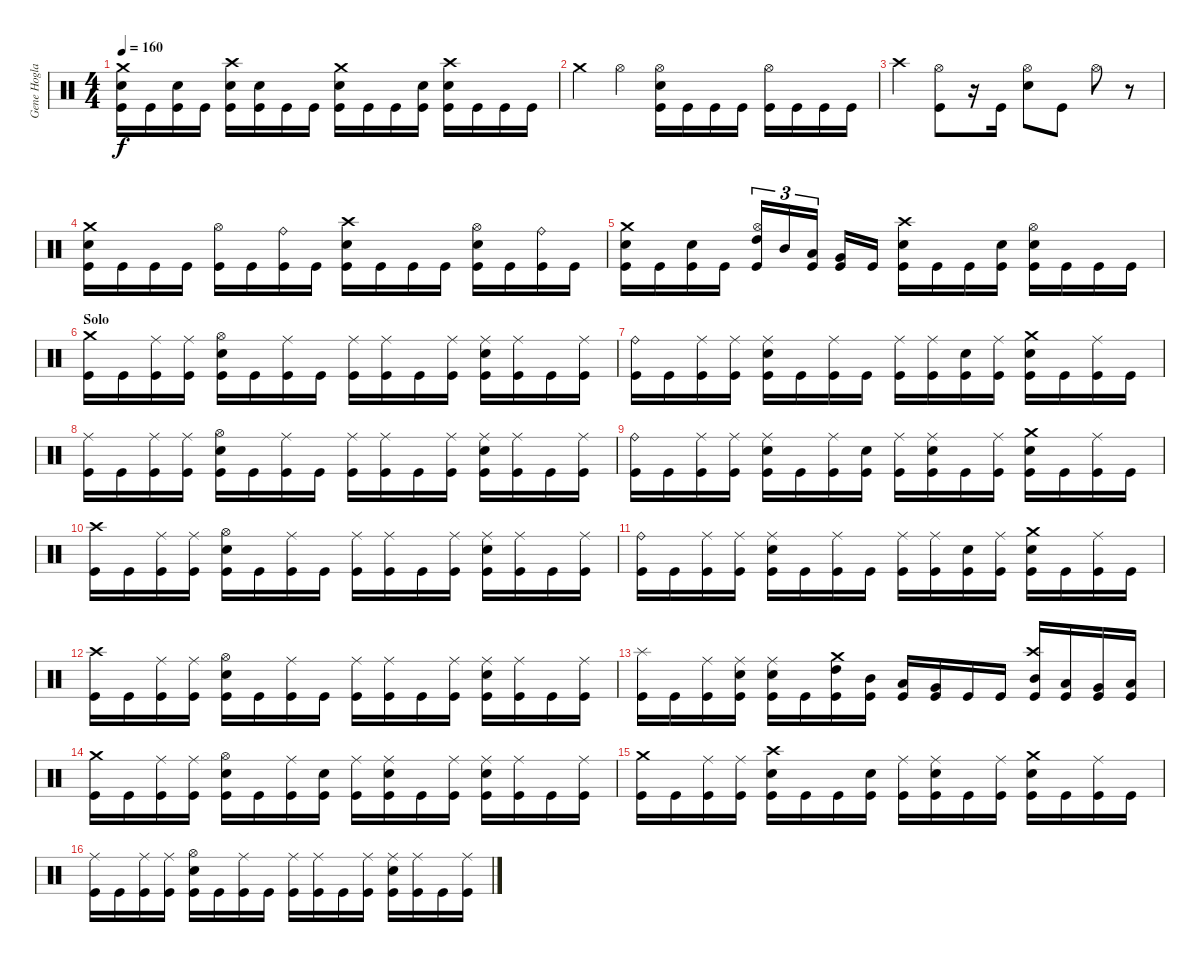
\track ("Gene Hoglan" "Gene Hogla") {instrument percussion}
\staff {score}
\articulation defaults
\ts (4 4)
\tempo 160
\clef neutral
\ks c
("Crash medium (hit)" "Electric Snare (hit)" "Kick (hit)").16{dy f} "Kick (hit)".16 ("Electric Snare (hit)" "Kick (hit)").16 "Kick (hit)".16 ("Crash high (hit)" "Electric Snare (hit)" "Kick (hit)").16 ("Electric Snare (hit)" "Kick (hit)").16 "Kick (hit)".16 "Kick (hit)".16 ("Crash medium (hit)" "Electric Snare (hit)" "Kick (hit)").16 "Kick (hit)".16 "Kick (hit)".16 ("Electric Snare (hit)" "Kick (hit)").16 ("Crash high (hit)" "Electric Snare (hit)" "Kick (hit)").16 "Kick (hit)".16 "Kick (hit)".16 "Kick (hit)".16 |
"Crash medium (hit)".4 "Hi-Hat (open)".4 ("Hi-Hat (open)" "Electric Snare (hit)" "Kick (hit)").16 "Kick (hit)".16 "Kick (hit)".16 "Kick (hit)".16 ("Hi-Hat (open)" "Kick (hit)").16 "Kick (hit)".16 "Kick (hit)".16 "Kick (hit)".16 |
"Crash high (hit)".4 ("Hi-Hat (open)" "Kick (hit)").8 r.16 "Kick (hit)".16 ("Hi-Hat (open)" "Electric Snare (hit)").8 "Kick (hit)".8 "Hi-Hat (open)".8 r.8 |
("Crash medium (hit)" "Electric Snare (hit)" "Kick (hit)").16 "Kick (hit)".16 "Kick (hit)".16 "Kick (hit)".16 ("Hi-Hat (open)" "Kick (hit)").16 "Kick (hit)".16 ("Ride (bell)" "Kick (hit)").16 "Kick (hit)".16 ("Crash high (hit)" "Electric Snare (hit)" "Kick (hit)").16 "Kick (hit)".16 "Kick (hit)".16 "Kick (hit)".16 ("Hi-Hat (open)" "Electric Snare (hit)" "Kick (hit)").16 "Kick (hit)".16 ("Ride (bell)" "Kick (hit)").16 "Kick (hit)".16 |
("Crash medium (hit)" "Electric Snare (hit)" "Kick (hit)").16 "Kick (hit)".16 ("Electric Snare (hit)" "Kick (hit)").16 "Kick (hit)".16 ("Hi-Hat (open)" "High Tom (hit)" "Kick (hit)").16{tu (3 2)} "Mid Tom (hit)".16{tu (3 2)} ("Low Tom (hit)" "Kick (hit)").16{tu (3 2)} ("Very Low Tom (hit)" "Kick (hit)").16 "Kick (hit)".16 ("Crash high (hit)" "Electric Snare (hit)" "Kick (hit)").16 "Kick (hit)".16 "Kick (hit)".16 ("Electric Snare (hit)" "Kick (hit)").16 ("Hi-Hat (open)" "Electric Snare (hit)" "Kick (hit)").16 "Kick (hit)".16 "Kick (hit)".16 "Kick (hit)".16 |
\section ("" "Solo")
("Crash medium (hit)" "Kick (hit)").16 "Kick (hit)".16 ("Ride (middle)" "Kick (hit)").16 ("Ride (middle)" "Kick (hit)").16 ("Hi-Hat (open)" "Electric Snare (hit)" "Kick (hit)").16 "Kick (hit)".16 ("Ride (middle)" "Kick (hit)").16 "Kick (hit)".16 ("Ride (middle)" "Kick (hit)").16 ("Ride (middle)" "Kick (hit)").16 "Kick (hit)".16 ("Ride (middle)" "Kick (hit)").16 ("Ride (middle)" "Electric Snare (hit)" "Kick (hit)").16 ("Ride (middle)" "Kick (hit)").16 "Kick (hit)".16 ("Ride (middle)" "Kick (hit)").16 |
("Ride (bell)" "Kick (hit)").16 "Kick (hit)".16 ("Ride (middle)" "Kick (hit)").16 ("Ride (middle)" "Kick (hit)").16 ("Ride (middle)" "Electric Snare (hit)" "Kick (hit)").16 "Kick (hit)".16 ("Ride (middle)" "Kick (hit)").16 "Kick (hit)".16 ("Ride (middle)" "Kick (hit)").16 ("Ride (middle)" "Kick (hit)").16 ("Electric Snare (hit)" "Kick (hit)").16 ("Ride (middle)" "Kick (hit)").16 ("Crash medium (hit)" "Electric Snare (hit)" "Kick (hit)").16 "Kick (hit)".16 ("Ride (middle)" "Kick (hit)").16 "Kick (hit)".16 |
("Ride (middle)" "Kick (hit)").16 "Kick (hit)".16 ("Ride (middle)" "Kick (hit)").16 ("Ride (middle)" "Kick (hit)").16 ("Hi-Hat (open)" "Electric Snare (hit)" "Kick (hit)").16 "Kick (hit)".16 ("Ride (middle)" "Kick (hit)").16 "Kick (hit)".16 ("Ride (middle)" "Kick (hit)").16 ("Ride (middle)" "Kick (hit)").16 "Kick (hit)".16 ("Ride (middle)" "Kick (hit)").16 ("Ride (middle)" "Electric Snare (hit)" "Kick (hit)").16 ("Ride (middle)" "Kick (hit)").16 "Kick (hit)".16 ("Ride (middle)" "Kick (hit)").16 |
("Ride (bell)" "Kick (hit)").16 "Kick (hit)".16 ("Ride (middle)" "Kick (hit)").16 ("Ride (middle)" "Kick (hit)").16 ("Ride (middle)" "Electric Snare (hit)" "Kick (hit)").16 "Kick (hit)".16 ("Ride (middle)" "Kick (hit)").16 ("Electric Snare (hit)" "Kick (hit)").16 ("Ride (middle)" "Kick (hit)").16 ("Ride (middle)" "Electric Snare (hit)" "Kick (hit)").16 "Kick (hit)".16 ("Ride (middle)" "Kick (hit)").16 ("Crash medium (hit)" "Electric Snare (hit)" "Kick (hit)").16 "Kick (hit)".16 ("Ride (middle)" "Kick (hit)").16 "Kick (hit)".16 |
("Crash high (hit)" "Kick (hit)").16 "Kick (hit)".16 ("Ride (middle)" "Kick (hit)").16 ("Ride (middle)" "Kick (hit)").16 ("Hi-Hat (open)" "Electric Snare (hit)" "Kick (hit)").16 "Kick (hit)".16 ("Ride (middle)" "Kick (hit)").16 "Kick (hit)".16 ("Ride (middle)" "Kick (hit)").16 ("Ride (middle)" "Kick (hit)").16 "Kick (hit)".16 ("Ride (middle)" "Kick (hit)").16 ("Ride (middle)" "Electric Snare (hit)" "Kick (hit)").16 ("Ride (middle)" "Kick (hit)").16 "Kick (hit)".16 ("Ride (middle)" "Kick (hit)").16 |
("Ride (bell)" "Kick (hit)").16 "Kick (hit)".16 ("Ride (middle)" "Kick (hit)").16 ("Ride (middle)" "Kick (hit)").16 ("Ride (middle)" "Electric Snare (hit)" "Kick (hit)").16 "Kick (hit)".16 ("Ride (middle)" "Kick (hit)").16 "Kick (hit)".16 ("Ride (middle)" "Kick (hit)").16 ("Ride (middle)" "Kick (hit)").16 ("Electric Snare (hit)" "Kick (hit)").16 ("Ride (middle)" "Kick (hit)").16 ("Crash medium (hit)" "Electric Snare (hit)" "Kick (hit)").16 "Kick (hit)".16 ("Ride (middle)" "Kick (hit)").16 "Kick (hit)".16 |
("Crash high (hit)" "Kick (hit)").16 "Kick (hit)".16 ("Ride (middle)" "Kick (hit)").16 ("Ride (middle)" "Kick (hit)").16 ("Hi-Hat (open)" "Electric Snare (hit)" "Kick (hit)").16 "Kick (hit)".16 ("Ride (middle)" "Kick (hit)").16 "Kick (hit)".16 ("Ride (middle)" "Kick (hit)").16 ("Ride (middle)" "Kick (hit)").16 "Kick (hit)".16 ("Ride (middle)" "Kick (hit)").16 ("Ride (middle)" "Electric Snare (hit)" "Kick (hit)").16 ("Ride (middle)" "Kick (hit)").16 "Kick (hit)".16 ("Ride (middle)" "Kick (hit)").16 |
("Splash (hit)" "Kick (hit)").16 "Kick (hit)".16 ("Ride (middle)" "Kick (hit)").16 ("Ride (middle)" "Electric Snare (hit)" "Kick (hit)").16 ("Ride (middle)" "Electric Snare (hit)" "Kick (hit)").16 "Kick (hit)".16 ("Crash medium (hit)" "High Tom (hit)" "Kick (hit)").16 ("Mid Tom (hit)" "Kick (hit)").16 ("Low Tom (hit)" "Kick (hit)").16 ("Very Low Tom (hit)" "Kick (hit)").16 "Kick (hit)".16 "Kick (hit)".16 ("Crash high (hit)" "Mid Tom (hit)" "Kick (hit)").16 ("Low Tom (hit)" "Kick (hit)").16 ("Very Low Tom (hit)" "Kick (hit)").16 ("Low Floor Tom (hit)" "Kick (hit)").16 |
("Crash medium (hit)" "Kick (hit)").16 "Kick (hit)".16 ("Ride (middle)" "Kick (hit)").16 ("Ride (middle)" "Kick (hit)").16 ("Hi-Hat (open)" "Electric Snare (hit)" "Kick (hit)").16 "Kick (hit)".16 ("Ride (middle)" "Kick (hit)").16 ("Electric Snare (hit)" "Kick (hit)").16 ("Ride (middle)" "Kick (hit)").16 ("Ride (middle)" "Electric Snare (hit)" "Kick (hit)").16 "Kick (hit)".16 ("Ride (middle)" "Kick (hit)").16 ("Ride (middle)" "Electric Snare (hit)" "Kick (hit)").16 ("Ride (middle)" "Kick (hit)").16 "Kick (hit)".16 ("Ride (middle)" "Kick (hit)").16 |
("Crash medium (hit)" "Kick (hit)").16 "Kick (hit)".16 ("Ride (middle)" "Kick (hit)").16 ("Ride (middle)" "Kick (hit)").16 ("Crash high (hit)" "Electric Snare (hit)" "Kick (hit)").16 "Kick (hit)".16 "Kick (hit)".16 ("Electric Snare (hit)" "Kick (hit)").16 ("Ride (middle)" "Kick (hit)").16 ("Ride (middle)" "Electric Snare (hit)" "Kick (hit)").16 "Kick (hit)".16 ("Ride (middle)" "Kick (hit)").16 ("Crash medium (hit)" "Electric Snare (hit)" "Kick (hit)").16 "Kick (hit)".16 ("Ride (middle)" "Kick (hit)").16 "Kick (hit)".16 |
("Ride (middle)" "Kick (hit)").16 "Kick (hit)".16 ("Ride (middle)" "Kick (hit)").16 ("Ride (middle)" "Kick (hit)").16 ("Hi-Hat (open)" "Electric Snare (hit)" "Kick (hit)").16 "Kick (hit)".16 ("Ride (middle)" "Kick (hit)").16 "Kick (hit)".16 ("Ride (middle)" "Kick (hit)").16 ("Ride (middle)" "Kick (hit)").16 "Kick (hit)".16 ("Ride (middle)" "Kick (hit)").16 ("Ride (middle)" "Electric Snare (hit)" "Kick (hit)").16 ("Ride (middle)" "Kick (hit)").16 "Kick (hit)".16 ("Ride (middle)" "Kick (hit)").16
